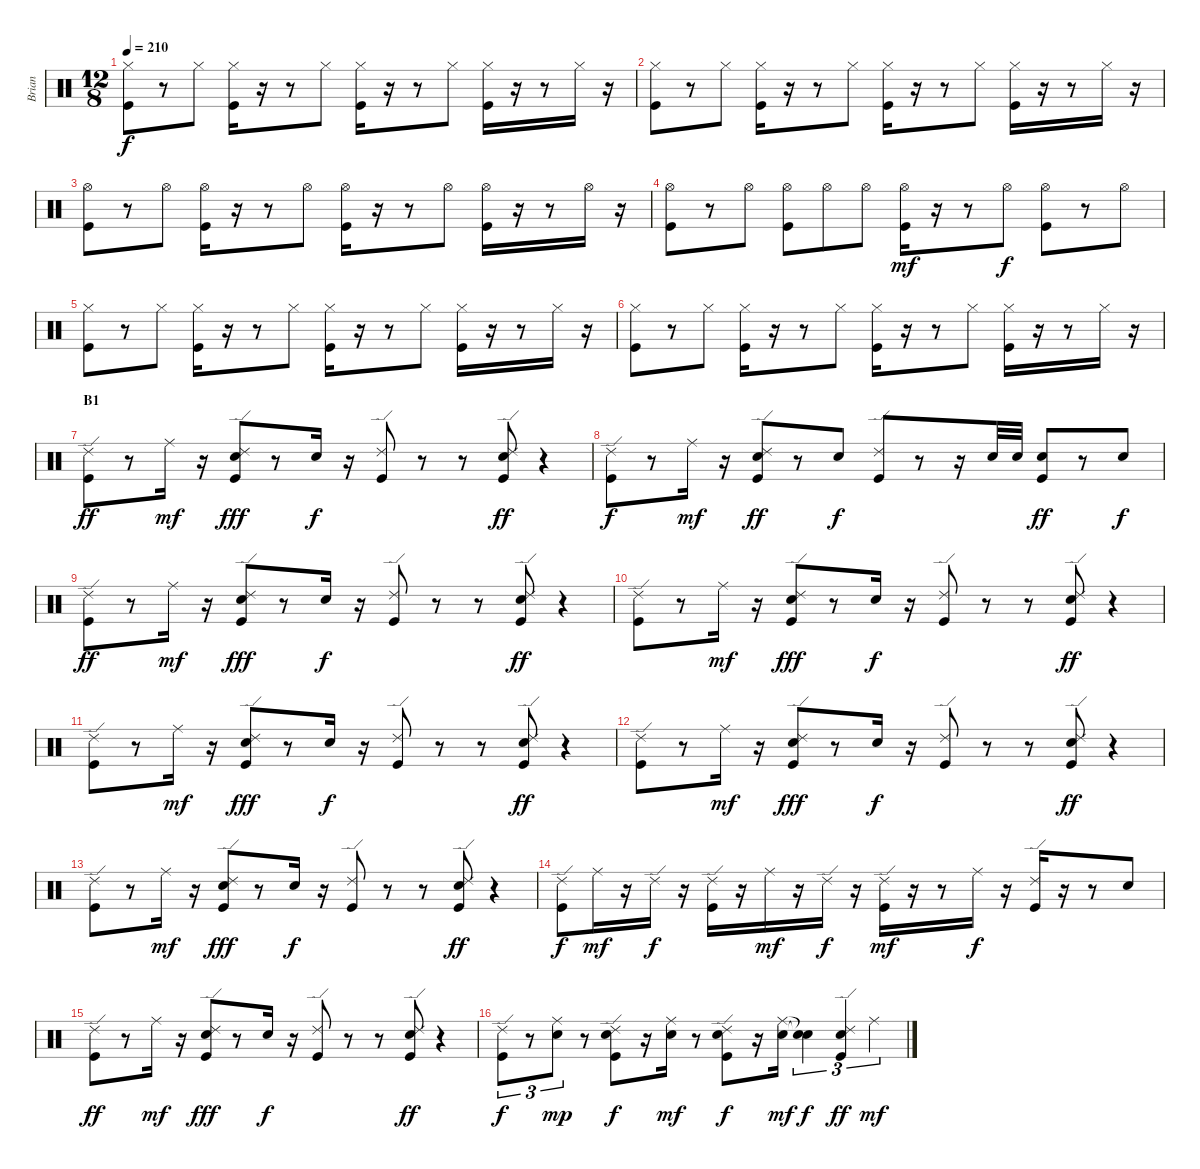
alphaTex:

\track ("Brian" "Brian") {instrument percussion}
\staff {score}
\articulation defaults
\ts (12 8)
\tempo 210
\clef neutral
\ks c
("Hi-Hat (closed)" "Kick (hit)").8{dy f} r.8 "Hi-Hat (closed)".8 ("Hi-Hat (closed)" "Kick (hit)").16 r.16 r.8 "Hi-Hat (closed)".8 ("Hi-Hat (closed)" "Kick (hit)").16 r.16 r.8 "Hi-Hat (closed)".8 ("Hi-Hat (closed)" "Kick (hit)").16 r.16 r.8 "Hi-Hat (closed)".16 r.16 |
("Hi-Hat (closed)" "Kick (hit)").8 r.8 "Hi-Hat (closed)".8 ("Hi-Hat (closed)" "Kick (hit)").16 r.16 r.8 "Hi-Hat (closed)".8 ("Hi-Hat (closed)" "Kick (hit)").16 r.16 r.8 "Hi-Hat (closed)".8 ("Hi-Hat (closed)" "Kick (hit)").16 r.16 r.8 "Hi-Hat (closed)".16 r.16 |
("Hi-Hat (open)" "Kick (hit)").8 r.8 "Hi-Hat (open)".8 ("Hi-Hat (open)" "Kick (hit)").16 r.16 r.8 "Hi-Hat (open)".8 ("Hi-Hat (open)" "Kick (hit)").16 r.16 r.8 "Hi-Hat (open)".8 ("Hi-Hat (open)" "Kick (hit)").16 r.16 r.8 "Hi-Hat (open)".16 r.16 |
("Hi-Hat (open)" "Kick (hit)").8 r.8 "Hi-Hat (open)".8 ("Hi-Hat (open)" "Kick (hit)").8 "Hi-Hat (open)".8 "Hi-Hat (open)".8 ("Hi-Hat (open)" "Kick (hit)").16{dy mf} r.16 r.8 "Hi-Hat (open)".8{dy f} ("Hi-Hat (open)" "Kick (hit)").8 r.8 "Hi-Hat (open)".8 |
("Hi-Hat (closed)" "Kick (hit)").8 r.8 "Hi-Hat (closed)".8 ("Hi-Hat (closed)" "Kick (hit)").16 r.16 r.8 "Hi-Hat (closed)".8 ("Hi-Hat (closed)" "Kick (hit)").16 r.16 r.8 "Hi-Hat (closed)".8 ("Hi-Hat (closed)" "Kick (hit)").16 r.16 r.8 "Hi-Hat (closed)".16 r.16 |
("Hi-Hat (closed)" "Kick (hit)").8 r.8 "Hi-Hat (closed)".8 ("Hi-Hat (closed)" "Kick (hit)").16 r.16 r.8 "Hi-Hat (closed)".8 ("Hi-Hat (closed)" "Kick (hit)").16 r.16 r.8 "Hi-Hat (closed)".8 ("Hi-Hat (closed)" "Kick (hit)").16 r.16 r.8 "Hi-Hat (closed)".16 r.16 |
\section ("" "B1")
("Ride (edge) 2" "Kick (hit)").8{dy ff} r.8 "Ride (middle)".16{dy mf} r.16 ("Ride (edge) 2" "Electric Snare (hit)" "Kick (hit)").8{dy fff} r.8 "Electric Snare (hit)".16{dy f} r.16 ("Ride (edge) 2" "Kick (hit)").8 r.8 r.8 ("Ride (edge) 2" "Electric Snare (hit)" "Kick (hit)").8{dy ff} r.4 |
("Ride (edge) 2" "Kick (hit)").8{dy f} r.8 "Ride (middle)".16{dy mf} r.16 ("Ride (edge) 2" "Electric Snare (hit)" "Kick (hit)").8{dy ff} r.8 "Electric Snare (hit)".8{dy f} ("Ride (edge) 2" "Kick (hit)").8 r.8 r.16 "Electric Snare (hit)".32 "Electric Snare (hit)".32 ("Electric Snare (hit)" "Kick (hit)").8{dy ff} r.8 "Electric Snare (hit)".8{dy f} |
("Ride (edge) 2" "Kick (hit)").8{dy ff} r.8 "Ride (middle)".16{dy mf} r.16 ("Ride (edge) 2" "Electric Snare (hit)" "Kick (hit)").8{dy fff} r.8 "Electric Snare (hit)".16{dy f} r.16 ("Ride (edge) 2" "Kick (hit)").8 r.8 r.8 ("Ride (edge) 2" "Electric Snare (hit)" "Kick (hit)").8{dy ff} r.4 |
("Ride (edge) 2" "Kick (hit)").8 r.8 "Ride (middle)".16{dy mf} r.16 ("Ride (edge) 2" "Electric Snare (hit)" "Kick (hit)").8{dy fff} r.8 "Electric Snare (hit)".16{dy f} r.16 ("Ride (edge) 2" "Kick (hit)").8 r.8 r.8 ("Ride (edge) 2" "Electric Snare (hit)" "Kick (hit)").8{dy ff} r.4 |
("Ride (edge) 2" "Kick (hit)").8 r.8 "Ride (middle)".16{dy mf} r.16 ("Ride (edge) 2" "Electric Snare (hit)" "Kick (hit)").8{dy fff} r.8 "Electric Snare (hit)".16{dy f} r.16 ("Ride (edge) 2" "Kick (hit)").8 r.8 r.8 ("Ride (edge) 2" "Electric Snare (hit)" "Kick (hit)").8{dy ff} r.4 |
("Ride (edge) 2" "Kick (hit)").8 r.8 "Ride (middle)".16{dy mf} r.16 ("Ride (edge) 2" "Electric Snare (hit)" "Kick (hit)").8{dy fff} r.8 "Electric Snare (hit)".16{dy f} r.16 ("Ride (edge) 2" "Kick (hit)").8 r.8 r.8 ("Ride (edge) 2" "Electric Snare (hit)" "Kick (hit)").8{dy ff} r.4 |
("Ride (edge) 2" "Kick (hit)").8 r.8 "Ride (middle)".16{dy mf} r.16 ("Ride (edge) 2" "Electric Snare (hit)" "Kick (hit)").8{dy fff} r.8 "Electric Snare (hit)".16{dy f} r.16 ("Ride (edge) 2" "Kick (hit)").8 r.8 r.8 ("Ride (edge) 2" "Electric Snare (hit)" "Kick (hit)").8{dy ff} r.4 |
("Ride (edge) 2" "Kick (hit)").8{dy f} "Ride (middle)".16{dy mf} r.16 "Ride (edge) 2".16{dy f} r.16 ("Ride (edge) 2" "Kick (hit)").16 r.16 "Ride (middle)".16{dy mf} r.16 "Ride (edge) 2".16{dy f} r.16 ("Ride (edge) 2" "Kick (hit)").16{dy mf} r.16 r.8 "Ride (middle)".16{dy f} r.16 ("Ride (edge) 2" "Kick (hit)").16 r.16 r.8 "Electric Snare (hit)".8 |
("Ride (edge) 2" "Kick (hit)").8{dy ff} r.8 "Ride (middle)".16{dy mf} r.16 ("Ride (edge) 2" "Electric Snare (hit)" "Kick (hit)").8{dy fff} r.8 "Electric Snare (hit)".16{dy f} r.16 ("Ride (edge) 2" "Kick (hit)").8 r.8 r.8 ("Ride (edge) 2" "Electric Snare (hit)" "Kick (hit)").8{dy ff} r.4 |
("Ride (edge) 2" "Kick (hit)").8{tu (3 2) dy f} r.8{tu (3 2)} ("Ride (middle)" "Electric Snare (hit)").8{tu (3 2) dy mp} r.8 ("Ride (edge) 2" "Electric Snare (hit)" "Kick (hit)").8{dy f} r.16 ("Ride (middle)" "Electric Snare (hit)").16{dy mf} r.8 ("Ride (edge) 2" "Electric Snare (hit)" "Kick (hit)").8{dy f} r.16 ("Ride (middle)" "Electric Snare (hit)").16{dy mf} ("Snare (hit)"{t} "Snare (hit)"{t}).4{tu (3 2) dy f} ("Kick (hit)" "Electric Snare (hit)" "Ride (edge) 2").4{tu (3 2) dy ff} "Ride (middle)".4{tu (3 2) dy mf}
